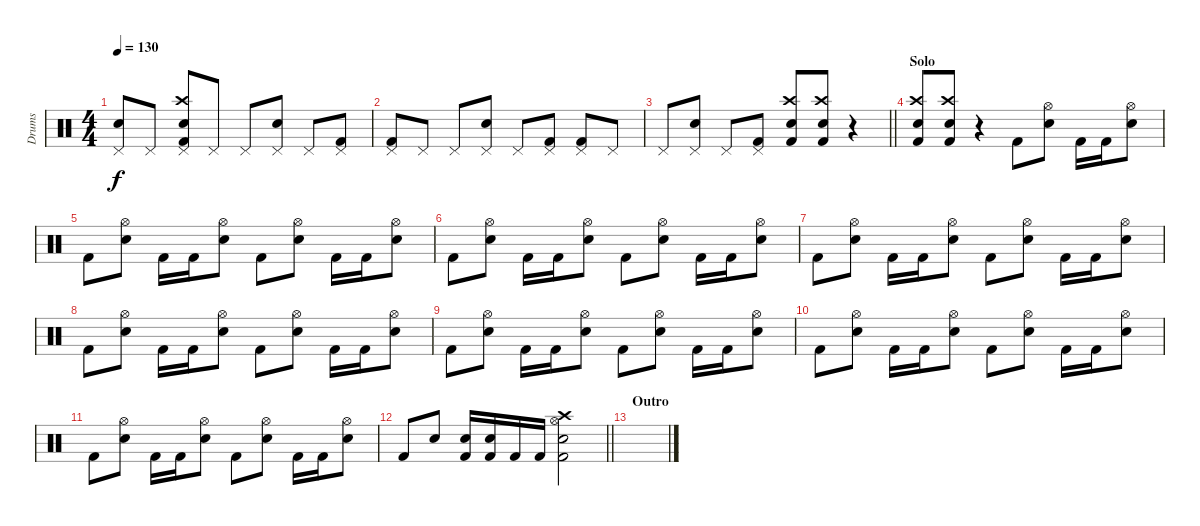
\track ("Drums" "Drums") {instrument percussion}
\staff {score}
\articulation defaults
\ts (4 4)
\tempo 130
\clef neutral
\ks c
("Pedal Hi-Hat (hit)" "Snare (hit) 2").8{dy f} "Pedal Hi-Hat (hit)".8 ("Crash high (hit)" "Pedal Hi-Hat (hit)" "Kick (hit) 2" "Snare (hit) 2").8 "Pedal Hi-Hat (hit)".8 "Pedal Hi-Hat (hit)".8 ("Pedal Hi-Hat (hit)" "Snare (hit) 2").8 "Pedal Hi-Hat (hit)".8 ("Pedal Hi-Hat (hit)" "Kick (hit) 2").8 |
("Pedal Hi-Hat (hit)" "Kick (hit) 2").8 "Pedal Hi-Hat (hit)".8 "Pedal Hi-Hat (hit)".8 ("Pedal Hi-Hat (hit)" "Snare (hit) 2").8 "Pedal Hi-Hat (hit)".8 ("Pedal Hi-Hat (hit)" "Kick (hit) 2").8 ("Pedal Hi-Hat (hit)" "Kick (hit) 2").8 "Pedal Hi-Hat (hit)".8 |
\barLineRight lightlight "Pedal Hi-Hat (hit)".8
("Pedal Hi-Hat (hit)" "Snare (hit) 2").8 "Pedal Hi-Hat (hit)".8 ("Pedal Hi-Hat (hit)" "Kick (hit) 2").8 ("Crash high (hit)" "Snare (hit) 2" "Kick (hit) 2").8 ("Crash high (hit)" "Snare (hit) 2" "Kick (hit) 2").8 r.4 |
\section ("" "Solo")
("Crash high (hit)" "Snare (hit) 2" "Kick (hit) 2").8 ("Crash high (hit)" "Snare (hit) 2" "Kick (hit) 2").8 r.4 "Kick (hit) 2".8 ("Hi-Hat (open)" "Snare (hit) 2").8 "Kick (hit) 2".16 "Kick (hit) 2".16 ("Hi-Hat (open)" "Snare (hit) 2").8 |
"Kick (hit) 2".8 ("Hi-Hat (open)" "Snare (hit) 2").8 "Kick (hit) 2".16 "Kick (hit) 2".16 ("Hi-Hat (open)" "Snare (hit) 2").8 "Kick (hit) 2".8 ("Hi-Hat (open)" "Snare (hit) 2").8 "Kick (hit) 2".16 "Kick (hit) 2".16 ("Hi-Hat (open)" "Snare (hit) 2").8 |
"Kick (hit) 2".8 ("Hi-Hat (open)" "Snare (hit) 2").8 "Kick (hit) 2".16 "Kick (hit) 2".16 ("Hi-Hat (open)" "Snare (hit) 2").8 "Kick (hit) 2".8 ("Hi-Hat (open)" "Snare (hit) 2").8 "Kick (hit) 2".16 "Kick (hit) 2".16 ("Hi-Hat (open)" "Snare (hit) 2").8 |
"Kick (hit) 2".8 ("Hi-Hat (open)" "Snare (hit) 2").8 "Kick (hit) 2".16 "Kick (hit) 2".16 ("Hi-Hat (open)" "Snare (hit) 2").8 "Kick (hit) 2".8 ("Hi-Hat (open)" "Snare (hit) 2").8 "Kick (hit) 2".16 "Kick (hit) 2".16 ("Hi-Hat (open)" "Snare (hit) 2").8 |
"Kick (hit) 2".8 ("Hi-Hat (open)" "Snare (hit) 2").8 "Kick (hit) 2".16 "Kick (hit) 2".16 ("Hi-Hat (open)" "Snare (hit) 2").8 "Kick (hit) 2".8 ("Hi-Hat (open)" "Snare (hit) 2").8 "Kick (hit) 2".16 "Kick (hit) 2".16 ("Hi-Hat (open)" "Snare (hit) 2").8 |
"Kick (hit) 2".8 ("Hi-Hat (open)" "Snare (hit) 2").8 "Kick (hit) 2".16 "Kick (hit) 2".16 ("Hi-Hat (open)" "Snare (hit) 2").8 "Kick (hit) 2".8 ("Hi-Hat (open)" "Snare (hit) 2").8 "Kick (hit) 2".16 "Kick (hit) 2".16 ("Hi-Hat (open)" "Snare (hit) 2").8 |
"Kick (hit) 2".8 ("Hi-Hat (open)" "Snare (hit) 2").8 "Kick (hit) 2".16 "Kick (hit) 2".16 ("Hi-Hat (open)" "Snare (hit) 2").8 "Kick (hit) 2".8 ("Hi-Hat (open)" "Snare (hit) 2").8 "Kick (hit) 2".16 "Kick (hit) 2".16 ("Hi-Hat (open)" "Snare (hit) 2").8 |
"Kick (hit) 2".8 ("Hi-Hat (open)" "Snare (hit) 2").8 "Kick (hit) 2".16 "Kick (hit) 2".16 ("Hi-Hat (open)" "Snare (hit) 2").8 "Kick (hit) 2".8 ("Hi-Hat (open)" "Snare (hit) 2").8 "Kick (hit) 2".16 "Kick (hit) 2".16 ("Hi-Hat (open)" "Snare (hit) 2").8 |
\barLineRight lightlight "Kick (hit) 2".8 "Snare (hit) 2".8
("Snare (hit) 2" "Kick (hit) 2").16 ("Snare (hit) 2" "Kick (hit) 2").16 "Kick (hit) 2".16 "Kick (hit) 2".16 ("Crash high (hit)" "Hi-Hat (open)" "Snare (hit) 2" "Kick (hit) 2").2 |
\section ("" "Outro")
